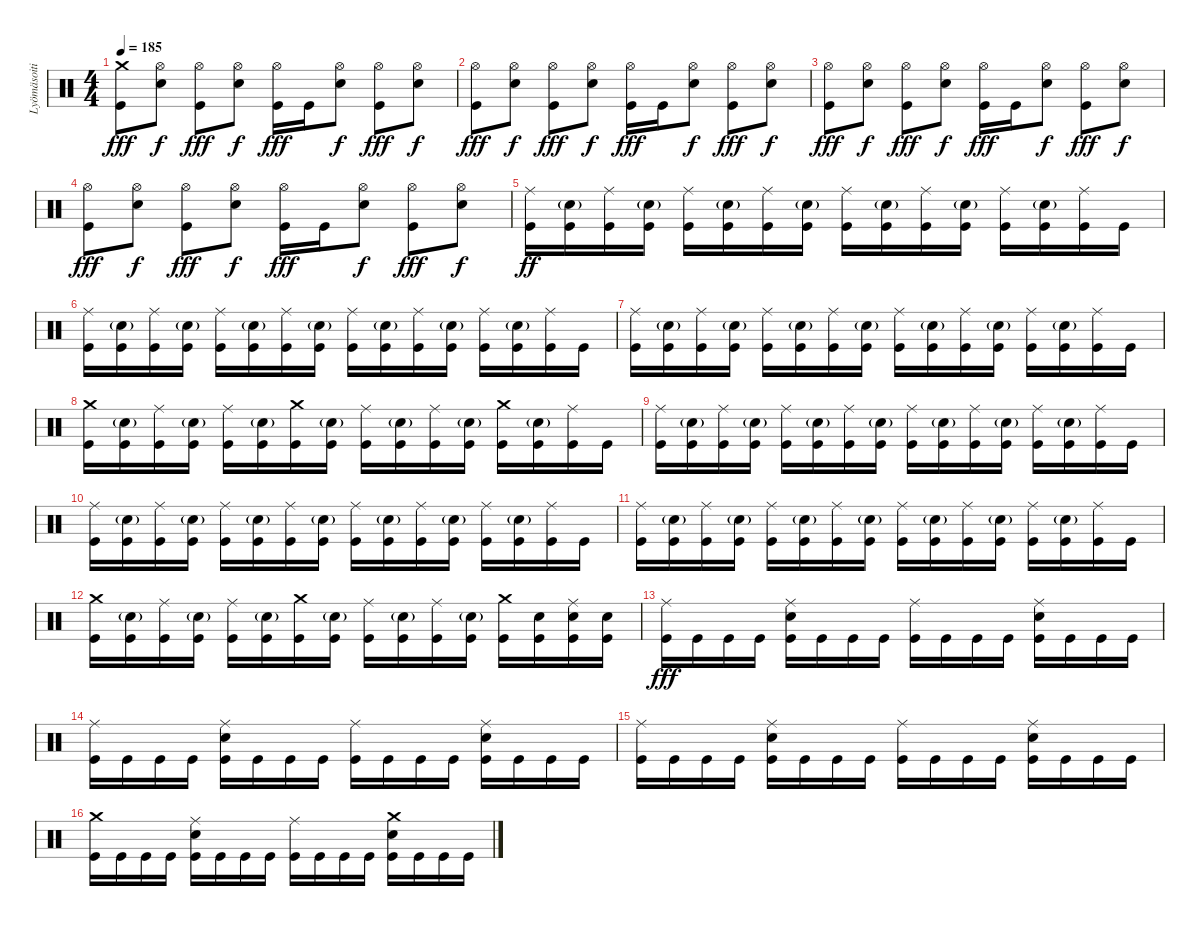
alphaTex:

\track ("Lyömäsoitin" "Lyömäsoiti") {instrument percussion}
\staff {score}
\articulation defaults
\ts (4 4)
\tempo 185
\clef neutral
\ks c
("Crash medium (hit)" "Kick (hit)").8{dy fff} ("Hi-Hat (open)" "Electric Snare (hit)").8{dy f} ("Hi-Hat (open)" "Kick (hit)").8{dy fff} ("Hi-Hat (open)" "Electric Snare (hit)").8{dy f} ("Hi-Hat (open)" "Kick (hit)").16{dy fff} "Kick (hit)".16 ("Hi-Hat (open)" "Electric Snare (hit)").8{dy f} ("Hi-Hat (open)" "Kick (hit)").8{dy fff} ("Hi-Hat (open)" "Electric Snare (hit)").8{dy f} |
("Hi-Hat (open)" "Kick (hit)").8{dy fff} ("Hi-Hat (open)" "Electric Snare (hit)").8{dy f} ("Hi-Hat (open)" "Kick (hit)").8{dy fff} ("Hi-Hat (open)" "Electric Snare (hit)").8{dy f} ("Hi-Hat (open)" "Kick (hit)").16{dy fff} "Kick (hit)".16 ("Hi-Hat (open)" "Electric Snare (hit)").8{dy f} ("Hi-Hat (open)" "Kick (hit)").8{dy fff} ("Hi-Hat (open)" "Electric Snare (hit)").8{dy f} |
("Hi-Hat (open)" "Kick (hit)").8{dy fff} ("Hi-Hat (open)" "Electric Snare (hit)").8{dy f} ("Hi-Hat (open)" "Kick (hit)").8{dy fff} ("Hi-Hat (open)" "Electric Snare (hit)").8{dy f} ("Hi-Hat (open)" "Kick (hit)").16{dy fff} "Kick (hit)".16 ("Hi-Hat (open)" "Electric Snare (hit)").8{dy f} ("Hi-Hat (open)" "Kick (hit)").8{dy fff} ("Hi-Hat (open)" "Electric Snare (hit)").8{dy f} |
("Hi-Hat (open)" "Kick (hit)").8{dy fff} ("Hi-Hat (open)" "Electric Snare (hit)").8{dy f} ("Hi-Hat (open)" "Kick (hit)").8{dy fff} ("Hi-Hat (open)" "Electric Snare (hit)").8{dy f} ("Hi-Hat (open)" "Kick (hit)").16{dy fff} "Kick (hit)".16 ("Hi-Hat (open)" "Electric Snare (hit)").8{dy f} ("Hi-Hat (open)" "Kick (hit)").8{dy fff} ("Hi-Hat (open)" "Electric Snare (hit)").8{dy f} |
("Ride (middle)" "Kick (hit)").16{dy ff} ("Electric Snare (hit)"{g} "Kick (hit)").16 ("Ride (middle)" "Kick (hit)").16 ("Electric Snare (hit)"{g} "Kick (hit)").16 ("Ride (middle)" "Kick (hit)").16 ("Electric Snare (hit)"{g} "Kick (hit)").16 ("Ride (middle)" "Kick (hit)").16 ("Electric Snare (hit)"{g} "Kick (hit)").16 ("Ride (middle)" "Kick (hit)").16 ("Electric Snare (hit)"{g} "Kick (hit)").16 ("Ride (middle)" "Kick (hit)").16 ("Electric Snare (hit)"{g} "Kick (hit)").16 ("Ride (middle)" "Kick (hit)").16 ("Electric Snare (hit)"{g} "Kick (hit)").16 ("Ride (middle)" "Kick (hit)").16 "Kick (hit)".16 |
("Ride (middle)" "Kick (hit)").16 ("Electric Snare (hit)"{g} "Kick (hit)").16 ("Ride (middle)" "Kick (hit)").16 ("Electric Snare (hit)"{g} "Kick (hit)").16 ("Ride (middle)" "Kick (hit)").16 ("Electric Snare (hit)"{g} "Kick (hit)").16 ("Ride (middle)" "Kick (hit)").16 ("Electric Snare (hit)"{g} "Kick (hit)").16 ("Ride (middle)" "Kick (hit)").16 ("Electric Snare (hit)"{g} "Kick (hit)").16 ("Ride (middle)" "Kick (hit)").16 ("Electric Snare (hit)"{g} "Kick (hit)").16 ("Ride (middle)" "Kick (hit)").16 ("Electric Snare (hit)"{g} "Kick (hit)").16 ("Ride (middle)" "Kick (hit)").16 "Kick (hit)".16 |
("Ride (middle)" "Kick (hit)").16 ("Electric Snare (hit)"{g} "Kick (hit)").16 ("Ride (middle)" "Kick (hit)").16 ("Electric Snare (hit)"{g} "Kick (hit)").16 ("Ride (middle)" "Kick (hit)").16 ("Electric Snare (hit)"{g} "Kick (hit)").16 ("Ride (middle)" "Kick (hit)").16 ("Electric Snare (hit)"{g} "Kick (hit)").16 ("Ride (middle)" "Kick (hit)").16 ("Electric Snare (hit)"{g} "Kick (hit)").16 ("Ride (middle)" "Kick (hit)").16 ("Electric Snare (hit)"{g} "Kick (hit)").16 ("Ride (middle)" "Kick (hit)").16 ("Electric Snare (hit)"{g} "Kick (hit)").16 ("Ride (middle)" "Kick (hit)").16 "Kick (hit)".16 |
("Crash medium (hit)" "Kick (hit)").16 ("Electric Snare (hit)"{g} "Kick (hit)").16 ("Ride (middle)" "Kick (hit)").16 ("Electric Snare (hit)"{g} "Kick (hit)").16 ("Ride (middle)" "Kick (hit)").16 ("Electric Snare (hit)"{g} "Kick (hit)").16 ("Crash medium (hit)" "Kick (hit)").16 ("Electric Snare (hit)"{g} "Kick (hit)").16 ("Ride (middle)" "Kick (hit)").16 ("Electric Snare (hit)"{g} "Kick (hit)").16 ("Ride (middle)" "Kick (hit)").16 ("Electric Snare (hit)"{g} "Kick (hit)").16 ("Crash medium (hit)" "Kick (hit)").16 ("Electric Snare (hit)"{g} "Kick (hit)").16 ("Ride (middle)" "Kick (hit)").16 "Kick (hit)".16 |
("Ride (middle)" "Kick (hit)").16 ("Electric Snare (hit)"{g} "Kick (hit)").16 ("Ride (middle)" "Kick (hit)").16 ("Electric Snare (hit)"{g} "Kick (hit)").16 ("Ride (middle)" "Kick (hit)").16 ("Electric Snare (hit)"{g} "Kick (hit)").16 ("Ride (middle)" "Kick (hit)").16 ("Electric Snare (hit)"{g} "Kick (hit)").16 ("Ride (middle)" "Kick (hit)").16 ("Electric Snare (hit)"{g} "Kick (hit)").16 ("Ride (middle)" "Kick (hit)").16 ("Electric Snare (hit)"{g} "Kick (hit)").16 ("Ride (middle)" "Kick (hit)").16 ("Electric Snare (hit)"{g} "Kick (hit)").16 ("Ride (middle)" "Kick (hit)").16 "Kick (hit)".16 |
("Ride (middle)" "Kick (hit)").16 ("Electric Snare (hit)"{g} "Kick (hit)").16 ("Ride (middle)" "Kick (hit)").16 ("Electric Snare (hit)"{g} "Kick (hit)").16 ("Ride (middle)" "Kick (hit)").16 ("Electric Snare (hit)"{g} "Kick (hit)").16 ("Ride (middle)" "Kick (hit)").16 ("Electric Snare (hit)"{g} "Kick (hit)").16 ("Ride (middle)" "Kick (hit)").16 ("Electric Snare (hit)"{g} "Kick (hit)").16 ("Ride (middle)" "Kick (hit)").16 ("Electric Snare (hit)"{g} "Kick (hit)").16 ("Ride (middle)" "Kick (hit)").16 ("Electric Snare (hit)"{g} "Kick (hit)").16 ("Ride (middle)" "Kick (hit)").16 "Kick (hit)".16 |
("Ride (middle)" "Kick (hit)").16 ("Electric Snare (hit)"{g} "Kick (hit)").16 ("Ride (middle)" "Kick (hit)").16 ("Electric Snare (hit)"{g} "Kick (hit)").16 ("Ride (middle)" "Kick (hit)").16 ("Electric Snare (hit)"{g} "Kick (hit)").16 ("Ride (middle)" "Kick (hit)").16 ("Electric Snare (hit)"{g} "Kick (hit)").16 ("Ride (middle)" "Kick (hit)").16 ("Electric Snare (hit)"{g} "Kick (hit)").16 ("Ride (middle)" "Kick (hit)").16 ("Electric Snare (hit)"{g} "Kick (hit)").16 ("Ride (middle)" "Kick (hit)").16 ("Electric Snare (hit)"{g} "Kick (hit)").16 ("Ride (middle)" "Kick (hit)").16 "Kick (hit)".16 |
("Crash medium (hit)" "Kick (hit)").16 ("Electric Snare (hit)"{g} "Kick (hit)").16 ("Ride (middle)" "Kick (hit)").16 ("Electric Snare (hit)"{g} "Kick (hit)").16 ("Ride (middle)" "Kick (hit)").16 ("Electric Snare (hit)"{g} "Kick (hit)").16 ("Crash medium (hit)" "Kick (hit)").16 ("Electric Snare (hit)"{g} "Kick (hit)").16 ("Ride (middle)" "Kick (hit)").16 ("Electric Snare (hit)"{g} "Kick (hit)").16 ("Ride (middle)" "Kick (hit)").16 ("Electric Snare (hit)"{g} "Kick (hit)").16 ("Crash medium (hit)" "Kick (hit)").16 ("Electric Snare (hit)" "Kick (hit)").16 ("Ride (middle)" "Electric Snare (hit)" "Kick (hit)").16 ("Electric Snare (hit)" "Kick (hit)").16 |
("Ride (middle)" "Kick (hit)").16{dy fff} "Kick (hit)".16 "Kick (hit)".16 "Kick (hit)".16 ("Ride (middle)" "Electric Snare (hit)" "Kick (hit)").16 "Kick (hit)".16 "Kick (hit)".16 "Kick (hit)".16 ("Ride (middle)" "Kick (hit)").16 "Kick (hit)".16 "Kick (hit)".16 "Kick (hit)".16 ("Ride (middle)" "Electric Snare (hit)" "Kick (hit)").16 "Kick (hit)".16 "Kick (hit)".16 "Kick (hit)".16 |
("Ride (middle)" "Kick (hit)").16 "Kick (hit)".16 "Kick (hit)".16 "Kick (hit)".16 ("Ride (middle)" "Electric Snare (hit)" "Kick (hit)").16 "Kick (hit)".16 "Kick (hit)".16 "Kick (hit)".16 ("Ride (middle)" "Kick (hit)").16 "Kick (hit)".16 "Kick (hit)".16 "Kick (hit)".16 ("Ride (middle)" "Electric Snare (hit)" "Kick (hit)").16 "Kick (hit)".16 "Kick (hit)".16 "Kick (hit)".16 |
("Ride (middle)" "Kick (hit)").16 "Kick (hit)".16 "Kick (hit)".16 "Kick (hit)".16 ("Ride (middle)" "Electric Snare (hit)" "Kick (hit)").16 "Kick (hit)".16 "Kick (hit)".16 "Kick (hit)".16 ("Ride (middle)" "Kick (hit)").16 "Kick (hit)".16 "Kick (hit)".16 "Kick (hit)".16 ("Ride (middle)" "Electric Snare (hit)" "Kick (hit)").16 "Kick (hit)".16 "Kick (hit)".16 "Kick (hit)".16 |
("Crash medium (hit)" "Kick (hit)").16 "Kick (hit)".16 "Kick (hit)".16 "Kick (hit)".16 ("Ride (middle)" "Electric Snare (hit)" "Kick (hit)").16 "Kick (hit)".16 "Kick (hit)".16 "Kick (hit)".16 ("Ride (middle)" "Kick (hit)").16 "Kick (hit)".16 "Kick (hit)".16 "Kick (hit)".16 ("Crash medium (hit)" "Electric Snare (hit)" "Kick (hit)").16 "Kick (hit)".16 "Kick (hit)".16 "Kick (hit)".16
